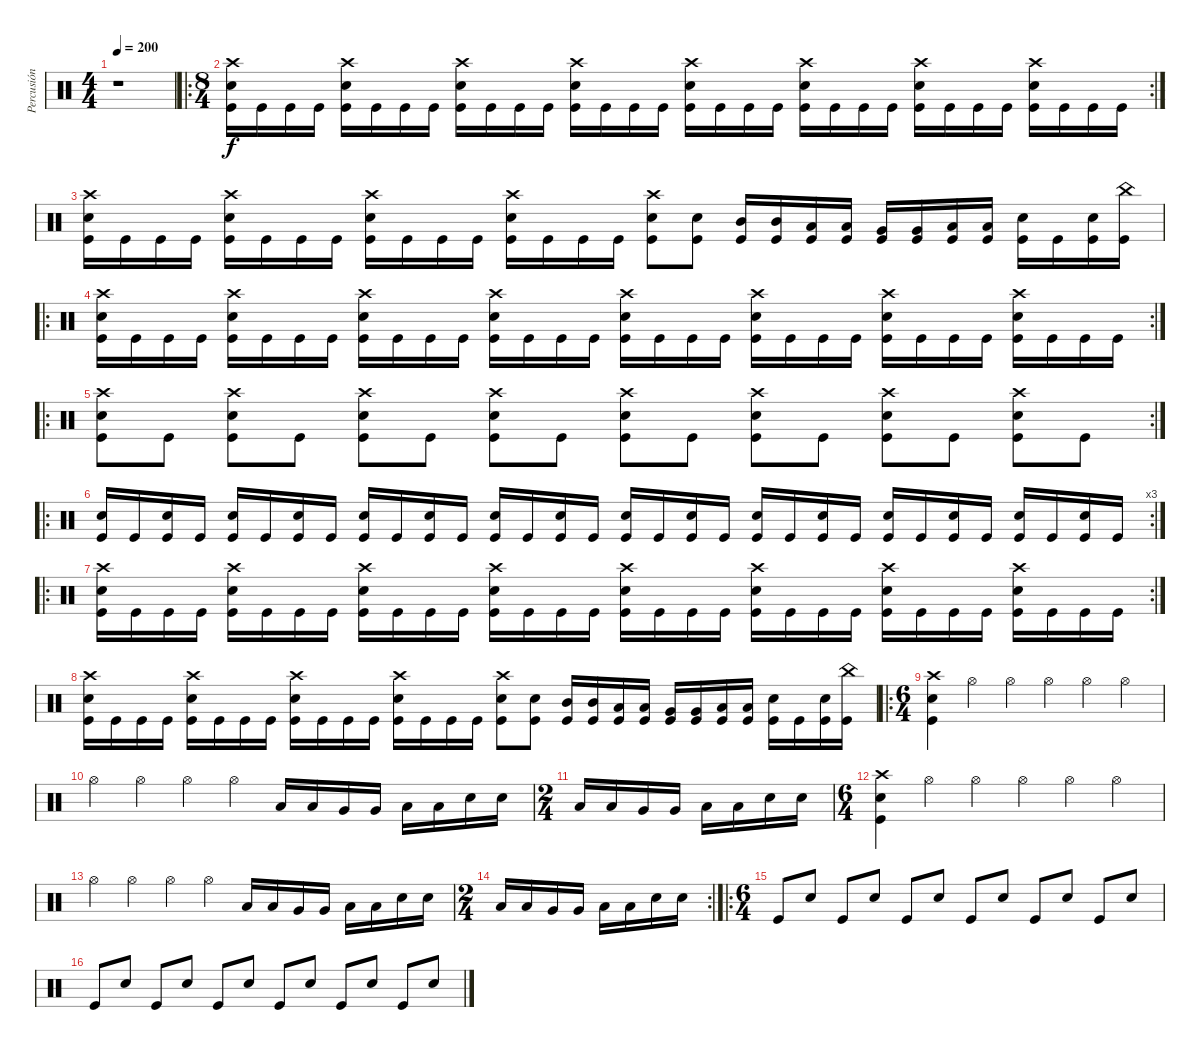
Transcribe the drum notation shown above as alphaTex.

\track ("Percusión" "Percusión") {instrument percussion}
\staff {score}
\articulation defaults
\ts (4 4)
\tempo 200
\clef neutral
\ks c
r.1{dy f} |
\ro
\rc 2
\ts (8 4)
("Crash high (hit)" "Snare (hit) 2" "Kick (hit)").16 "Kick (hit)".16 "Kick (hit)".16 "Kick (hit)".16 ("Crash high (hit)" "Snare (hit) 2" "Kick (hit)").16 "Kick (hit)".16 "Kick (hit)".16 "Kick (hit)".16 ("Crash high (hit)" "Snare (hit) 2" "Kick (hit)").16 "Kick (hit)".16 "Kick (hit)".16 "Kick (hit)".16 ("Crash high (hit)" "Snare (hit) 2" "Kick (hit)").16 "Kick (hit)".16 "Kick (hit)".16 "Kick (hit)".16 ("Crash high (hit)" "Snare (hit) 2" "Kick (hit)").16 "Kick (hit)".16 "Kick (hit)".16 "Kick (hit)".16 ("Crash high (hit)" "Snare (hit) 2" "Kick (hit)").16 "Kick (hit)".16 "Kick (hit)".16 "Kick (hit)".16 ("Crash high (hit)" "Snare (hit) 2" "Kick (hit)").16 "Kick (hit)".16 "Kick (hit)".16 "Kick (hit)".16 ("Crash high (hit)" "Snare (hit) 2" "Kick (hit)").16 "Kick (hit)".16 "Kick (hit)".16 "Kick (hit)".16 |
("Crash high (hit)" "Snare (hit) 2" "Kick (hit)").16 "Kick (hit)".16 "Kick (hit)".16 "Kick (hit)".16 ("Crash high (hit)" "Snare (hit) 2" "Kick (hit)").16 "Kick (hit)".16 "Kick (hit)".16 "Kick (hit)".16 ("Crash high (hit)" "Snare (hit) 2" "Kick (hit)").16 "Kick (hit)".16 "Kick (hit)".16 "Kick (hit)".16 ("Crash high (hit)" "Snare (hit) 2" "Kick (hit)").16 "Kick (hit)".16 "Kick (hit)".16 "Kick (hit)".16 ("Crash high (hit)" "Snare (hit) 2" "Kick (hit)").8 ("Snare (hit) 2" "Kick (hit)").8 ("Mid Tom (hit)" "Kick (hit)").16 ("Mid Tom (hit)" "Kick (hit)").16 ("Low Tom (hit)" "Kick (hit)").16 ("Low Tom (hit)" "Kick (hit)").16 ("Very Low Tom (hit)" "Kick (hit)").16 ("Very Low Tom (hit)" "Kick (hit)").16 ("Low Floor Tom (hit)" "Kick (hit)").16 ("Low Floor Tom (hit)" "Kick (hit)").16 ("Snare (hit) 2" "Kick (hit)").16 "Kick (hit)".16 ("Snare (hit) 2" "Kick (hit)").16 ("China (hit)" "Kick (hit)").16 |
\ro
\rc 2
("Crash high (hit)" "Snare (hit) 2" "Kick (hit)").16 "Kick (hit)".16 "Kick (hit)".16 "Kick (hit)".16 ("Crash high (hit)" "Snare (hit) 2" "Kick (hit)").16 "Kick (hit)".16 "Kick (hit)".16 "Kick (hit)".16 ("Crash high (hit)" "Snare (hit) 2" "Kick (hit)").16 "Kick (hit)".16 "Kick (hit)".16 "Kick (hit)".16 ("Crash high (hit)" "Snare (hit) 2" "Kick (hit)").16 "Kick (hit)".16 "Kick (hit)".16 "Kick (hit)".16 ("Crash high (hit)" "Snare (hit) 2" "Kick (hit)").16 "Kick (hit)".16 "Kick (hit)".16 "Kick (hit)".16 ("Crash high (hit)" "Snare (hit) 2" "Kick (hit)").16 "Kick (hit)".16 "Kick (hit)".16 "Kick (hit)".16 ("Crash high (hit)" "Snare (hit) 2" "Kick (hit)").16 "Kick (hit)".16 "Kick (hit)".16 "Kick (hit)".16 ("Crash high (hit)" "Snare (hit) 2" "Kick (hit)").16 "Kick (hit)".16 "Kick (hit)".16 "Kick (hit)".16 |
\ro
\rc 2
("Crash high (hit)" "Snare (hit) 2" "Kick (hit)").8 "Kick (hit)".8 ("Crash high (hit)" "Snare (hit) 2" "Kick (hit)").8 "Kick (hit)".8 ("Crash high (hit)" "Snare (hit) 2" "Kick (hit)").8 "Kick (hit)".8 ("Crash high (hit)" "Snare (hit) 2" "Kick (hit)").8 "Kick (hit)".8 ("Crash high (hit)" "Snare (hit) 2" "Kick (hit)").8 "Kick (hit)".8 ("Crash high (hit)" "Snare (hit) 2" "Kick (hit)").8 "Kick (hit)".8 ("Crash high (hit)" "Snare (hit) 2" "Kick (hit)").8 "Kick (hit)".8 ("Crash high (hit)" "Snare (hit) 2" "Kick (hit)").8 "Kick (hit)".8 |
\ro
\rc 3
("Snare (hit) 2" "Kick (hit)").16 "Kick (hit)".16 ("Snare (hit) 2" "Kick (hit)").16 "Kick (hit)".16 ("Snare (hit) 2" "Kick (hit)").16 "Kick (hit)".16 ("Snare (hit) 2" "Kick (hit)").16 "Kick (hit)".16 ("Snare (hit) 2" "Kick (hit)").16 "Kick (hit)".16 ("Snare (hit) 2" "Kick (hit)").16 "Kick (hit)".16 ("Snare (hit) 2" "Kick (hit)").16 "Kick (hit)".16 ("Snare (hit) 2" "Kick (hit)").16 "Kick (hit)".16 ("Snare (hit) 2" "Kick (hit)").16 "Kick (hit)".16 ("Snare (hit) 2" "Kick (hit)").16 "Kick (hit)".16 ("Snare (hit) 2" "Kick (hit)").16 "Kick (hit)".16 ("Snare (hit) 2" "Kick (hit)").16 "Kick (hit)".16 ("Snare (hit) 2" "Kick (hit)").16 "Kick (hit)".16 ("Snare (hit) 2" "Kick (hit)").16 "Kick (hit)".16 ("Snare (hit) 2" "Kick (hit)").16 "Kick (hit)".16 ("Snare (hit) 2" "Kick (hit)").16 "Kick (hit)".16 |
\ro
\rc 2
("Crash high (hit)" "Snare (hit) 2" "Kick (hit)").16 "Kick (hit)".16 "Kick (hit)".16 "Kick (hit)".16 ("Crash high (hit)" "Snare (hit) 2" "Kick (hit)").16 "Kick (hit)".16 "Kick (hit)".16 "Kick (hit)".16 ("Crash high (hit)" "Snare (hit) 2" "Kick (hit)").16 "Kick (hit)".16 "Kick (hit)".16 "Kick (hit)".16 ("Crash high (hit)" "Snare (hit) 2" "Kick (hit)").16 "Kick (hit)".16 "Kick (hit)".16 "Kick (hit)".16 ("Crash high (hit)" "Snare (hit) 2" "Kick (hit)").16 "Kick (hit)".16 "Kick (hit)".16 "Kick (hit)".16 ("Crash high (hit)" "Snare (hit) 2" "Kick (hit)").16 "Kick (hit)".16 "Kick (hit)".16 "Kick (hit)".16 ("Crash high (hit)" "Snare (hit) 2" "Kick (hit)").16 "Kick (hit)".16 "Kick (hit)".16 "Kick (hit)".16 ("Crash high (hit)" "Snare (hit) 2" "Kick (hit)").16 "Kick (hit)".16 "Kick (hit)".16 "Kick (hit)".16 |
("Crash high (hit)" "Snare (hit) 2" "Kick (hit)").16 "Kick (hit)".16 "Kick (hit)".16 "Kick (hit)".16 ("Crash high (hit)" "Snare (hit) 2" "Kick (hit)").16 "Kick (hit)".16 "Kick (hit)".16 "Kick (hit)".16 ("Crash high (hit)" "Snare (hit) 2" "Kick (hit)").16 "Kick (hit)".16 "Kick (hit)".16 "Kick (hit)".16 ("Crash high (hit)" "Snare (hit) 2" "Kick (hit)").16 "Kick (hit)".16 "Kick (hit)".16 "Kick (hit)".16 ("Crash high (hit)" "Snare (hit) 2" "Kick (hit)").8 ("Snare (hit) 2" "Kick (hit)").8 ("Mid Tom (hit)" "Kick (hit)").16 ("Mid Tom (hit)" "Kick (hit)").16 ("Low Tom (hit)" "Kick (hit)").16 ("Low Tom (hit)" "Kick (hit)").16 ("Very Low Tom (hit)" "Kick (hit)").16 ("Very Low Tom (hit)" "Kick (hit)").16 ("Low Floor Tom (hit)" "Kick (hit)").16 ("Low Floor Tom (hit)" "Kick (hit)").16 ("Snare (hit) 2" "Kick (hit)").16 "Kick (hit)".16 ("Snare (hit) 2" "Kick (hit)").16 ("China (hit)" "Kick (hit)").16 |
\ro
\ts (6 4)
("Crash high (hit)" "Snare (hit) 2" "Kick (hit)").4 "Hi-Hat (open)".4 "Hi-Hat (open)".4 "Hi-Hat (open)".4 "Hi-Hat (open)".4 "Hi-Hat (open)".4 |
"Hi-Hat (open)".4 "Hi-Hat (open)".4 "Hi-Hat (open)".4 "Hi-Hat (open)".4 "Low Tom (hit)".16 "Low Tom (hit)".16 "Very Low Tom (hit)".16 "Very Low Tom (hit)".16 "Low Floor Tom (hit)".16 "Low Floor Tom (hit)".16 "Snare (hit) 2".16 "Snare (hit) 2".16 |
\ts (2 4)
"Low Tom (hit)".16 "Low Tom (hit)".16 "Very Low Tom (hit)".16 "Very Low Tom (hit)".16 "Low Floor Tom (hit)".16 "Low Floor Tom (hit)".16 "Snare (hit) 2".16 "Snare (hit) 2".16 |
\ts (6 4)
("Crash high (hit)" "Snare (hit) 2" "Kick (hit)").4 "Hi-Hat (open)".4 "Hi-Hat (open)".4 "Hi-Hat (open)".4 "Hi-Hat (open)".4 "Hi-Hat (open)".4 |
"Hi-Hat (open)".4 "Hi-Hat (open)".4 "Hi-Hat (open)".4 "Hi-Hat (open)".4 "Low Tom (hit)".16 "Low Tom (hit)".16 "Very Low Tom (hit)".16 "Very Low Tom (hit)".16 "Low Floor Tom (hit)".16 "Low Floor Tom (hit)".16 "Snare (hit) 2".16 "Snare (hit) 2".16 |
\rc 2
\ts (2 4)
"Low Tom (hit)".16 "Low Tom (hit)".16 "Very Low Tom (hit)".16 "Very Low Tom (hit)".16 "Low Floor Tom (hit)".16 "Low Floor Tom (hit)".16 "Snare (hit) 2".16 "Snare (hit) 2".16 |
\ro
\ts (6 4)
"Kick (hit)".8 "Snare (hit) 2".8 "Kick (hit)".8 "Snare (hit) 2".8 "Kick (hit)".8 "Snare (hit) 2".8 "Kick (hit)".8 "Snare (hit) 2".8 "Kick (hit)".8 "Snare (hit) 2".8 "Kick (hit)".8 "Snare (hit) 2".8 |
"Kick (hit)".8 "Snare (hit) 2".8 "Kick (hit)".8 "Snare (hit) 2".8 "Kick (hit)".8 "Snare (hit) 2".8 "Kick (hit)".8 "Snare (hit) 2".8 "Kick (hit)".8 "Snare (hit) 2".8 "Kick (hit)".8 "Snare (hit) 2".8
